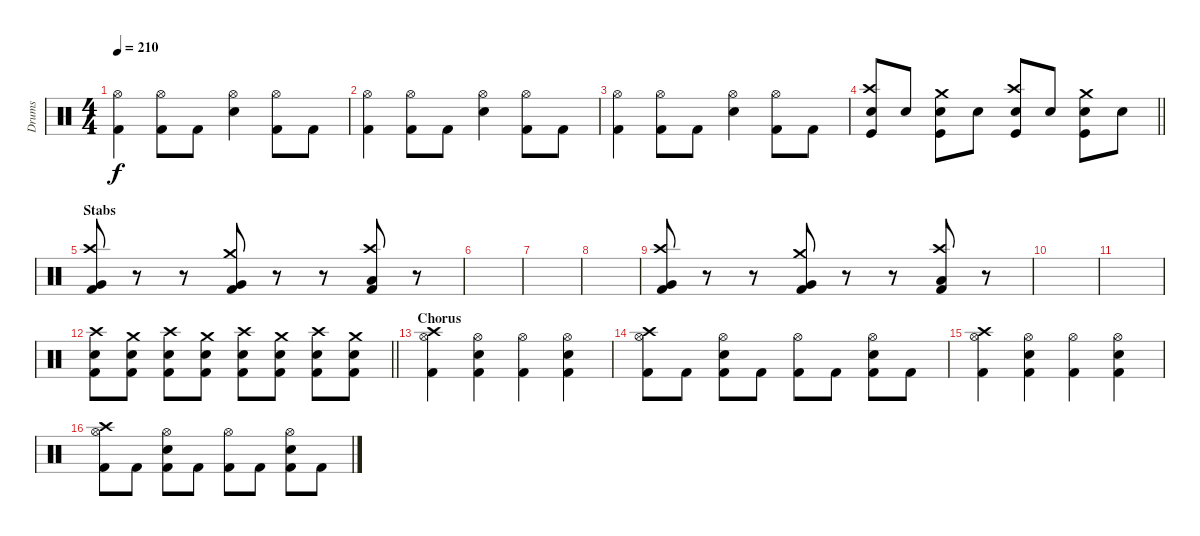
\track ("Drums" "Drums") {instrument percussion}
\staff {score}
\articulation defaults
\ts (4 4)
\tempo 210
\clef neutral
\ks c
("Hi-Hat (open)" "Kick (hit) 2").4{dy f} ("Hi-Hat (open)" "Kick (hit) 2").8 "Kick (hit) 2".8 ("Hi-Hat (open)" "Snare (hit) 2").4 ("Hi-Hat (open)" "Kick (hit) 2").8 "Kick (hit) 2".8 |
("Hi-Hat (open)" "Kick (hit) 2").4 ("Hi-Hat (open)" "Kick (hit) 2").8 "Kick (hit) 2".8 ("Hi-Hat (open)" "Snare (hit) 2").4 ("Hi-Hat (open)" "Kick (hit) 2").8 "Kick (hit) 2".8 |
("Hi-Hat (open)" "Kick (hit) 2").4 ("Hi-Hat (open)" "Kick (hit) 2").8 "Kick (hit) 2".8 ("Hi-Hat (open)" "Snare (hit) 2").4 ("Hi-Hat (open)" "Kick (hit) 2").8 "Kick (hit) 2".8 |
\barLineRight lightlight
("Crash high (hit)" "Snare (hit) 2" "Kick (hit)").8 "Snare (hit) 2".8 ("Crash medium (hit)" "Snare (hit) 2" "Kick (hit)").8 "Snare (hit) 2".8 ("Crash high (hit)" "Snare (hit) 2" "Kick (hit)").8 "Snare (hit) 2".8 ("Crash medium (hit)" "Snare (hit) 2" "Kick (hit)").8 "Snare (hit) 2".8 |
\section ("" "Stabs")
("Crash high (hit)" "Very Low Tom (hit)" "Kick (hit) 2").8 r.8 r.8 ("Crash medium (hit)" "Very Low Tom (hit)" "Kick (hit) 2").8 r.8 r.8 ("Crash high (hit)" "Low Floor Tom (hit)" "Kick (hit) 2").8 r.8 |
|
|
|
("Crash high (hit)" "Very Low Tom (hit)" "Kick (hit) 2").8 r.8 r.8 ("Crash medium (hit)" "Very Low Tom (hit)" "Kick (hit) 2").8 r.8 r.8 ("Crash high (hit)" "Low Floor Tom (hit)" "Kick (hit) 2").8 r.8 |
|
|
\barLineRight lightlight
("Crash high (hit)" "Snare (hit) 2" "Kick (hit) 2").8 ("Crash medium (hit)" "Snare (hit) 2" "Kick (hit) 2").8 ("Crash high (hit)" "Snare (hit) 2" "Kick (hit) 2").8 ("Crash medium (hit)" "Snare (hit) 2" "Kick (hit) 2").8 ("Crash high (hit)" "Snare (hit) 2" "Kick (hit) 2").8 ("Crash medium (hit)" "Snare (hit) 2" "Kick (hit) 2").8 ("Crash high (hit)" "Snare (hit) 2" "Kick (hit) 2").8 ("Crash medium (hit)" "Snare (hit) 2" "Kick (hit) 2").8 |
\section ("" "Chorus")
("Crash high (hit)" "Hi-Hat (open)" "Kick (hit) 2").4 ("Hi-Hat (open)" "Snare (hit) 2" "Kick (hit) 2").4 ("Hi-Hat (open)" "Kick (hit) 2").4 ("Hi-Hat (open)" "Snare (hit) 2" "Kick (hit) 2").4 |
("Crash high (hit)" "Hi-Hat (open)" "Kick (hit) 2").8 "Kick (hit) 2".8 ("Hi-Hat (open)" "Snare (hit) 2" "Kick (hit) 2").8 "Kick (hit) 2".8 ("Hi-Hat (open)" "Kick (hit) 2").8 "Kick (hit) 2".8 ("Hi-Hat (open)" "Snare (hit) 2" "Kick (hit) 2").8 "Kick (hit) 2".8 |
("Crash high (hit)" "Hi-Hat (open)" "Kick (hit) 2").4 ("Hi-Hat (open)" "Snare (hit) 2" "Kick (hit) 2").4 ("Hi-Hat (open)" "Kick (hit) 2").4 ("Hi-Hat (open)" "Snare (hit) 2" "Kick (hit) 2").4 |
("Crash high (hit)" "Hi-Hat (open)" "Kick (hit) 2").8 "Kick (hit) 2".8 ("Hi-Hat (open)" "Snare (hit) 2" "Kick (hit) 2").8 "Kick (hit) 2".8 ("Hi-Hat (open)" "Kick (hit) 2").8 "Kick (hit) 2".8 ("Hi-Hat (open)" "Snare (hit) 2" "Kick (hit) 2").8 "Kick (hit) 2".8
